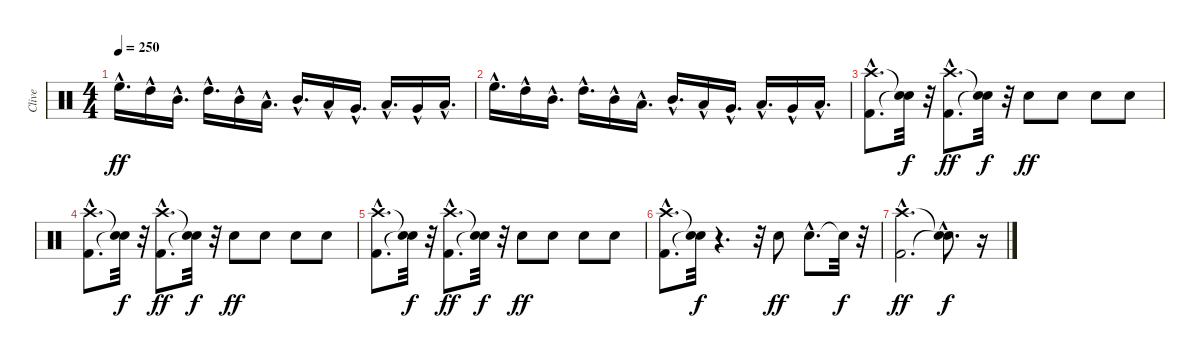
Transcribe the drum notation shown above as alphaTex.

\track ("Clive" "Clive") {instrument percussion}
\staff {score}
\articulation defaults
\ts (4 4)
\tempo 250
\clef neutral
\ks c "High Floor Tom (hit)"{hac}.16{d dy ff} "High Tom (hit)"{hac}.16 "Mid Tom (hit)"{hac}.16{d} "High Tom (hit)"{hac}.16{d} "Mid Tom (hit)"{hac}.16 "Low Tom (hit)"{hac}.16{d} "Mid Tom (hit)"{hac}.16{d} "Low Tom (hit)"{hac}.16 "Very Low Tom (hit)"{hac}.16{d} "Low Tom (hit)"{hac}.16{d} "Very Low Tom (hit)"{hac}.16 "Low Floor Tom (hit)"{hac}.16{d}
|
"High Floor Tom (hit)"{hac}.16{d} "High Tom (hit)"{hac}.16 "Mid Tom (hit)"{hac}.16{d} "High Tom (hit)"{hac}.16{d} "Mid Tom (hit)"{hac}.16 "Low Tom (hit)"{hac}.16{d} "Mid Tom (hit)"{hac}.16{d} "Low Tom (hit)"{hac}.16 "Very Low Tom (hit)"{hac}.16{d} "Low Tom (hit)"{hac}.16{d} "Very Low Tom (hit)"{hac}.16 "Low Floor Tom (hit)"{hac}.16{d} |
("Kick (hit) 2"{hac} "Crash high (hit)"{hac}).8{d} ("Snare (hit)"{t} "Snare (hit)"{t}).32{dy f} r.32 ("Kick (hit) 2"{hac} "Crash high (hit)"{hac}).8{d dy ff} ("Snare (hit)"{t} "Snare (hit)"{t}).32{dy f} r.32 "Snare (hit) 2".8{dy ff} "Snare (hit) 2".8 "Snare (hit) 2".8 "Snare (hit) 2".8 |
("Kick (hit) 2"{hac} "Crash high (hit)"{hac}).8{d} ("Snare (hit)"{t} "Snare (hit)"{t}).32{dy f} r.32 ("Kick (hit) 2"{hac} "Crash high (hit)"{hac}).8{d dy ff} ("Snare (hit)"{t} "Snare (hit)"{t}).32{dy f} r.32 "Snare (hit) 2".8{dy ff} "Snare (hit) 2".8 "Snare (hit) 2".8 "Snare (hit) 2".8 |
("Kick (hit) 2"{hac} "Crash high (hit)"{hac}).8{d} ("Snare (hit)"{t} "Snare (hit)"{t}).32{dy f} r.32 ("Kick (hit) 2"{hac} "Crash high (hit)"{hac}).8{d dy ff} ("Snare (hit)"{t} "Snare (hit)"{t}).32{dy f} r.32 "Snare (hit) 2".8{dy ff} "Snare (hit) 2".8 "Snare (hit) 2".8 "Snare (hit) 2".8 |
("Kick (hit) 2"{hac} "Crash high (hit)"{hac}).8{d} ("Snare (hit)"{t} "Snare (hit)"{t}).32{dy f} r.4{d} r.32 "Snare (hit) 2".8{dy ff} "Snare (hit) 2"{hac}.8{d} "Snare (hit)"{t}.32{dy f} r.32 |
("Kick (hit) 2"{hac} "Crash high (hit)"{hac}).2{d dy ff} ("Snare (hit)"{hac t} "Snare (hit)"{hac t}).8{d dy f} r.16
